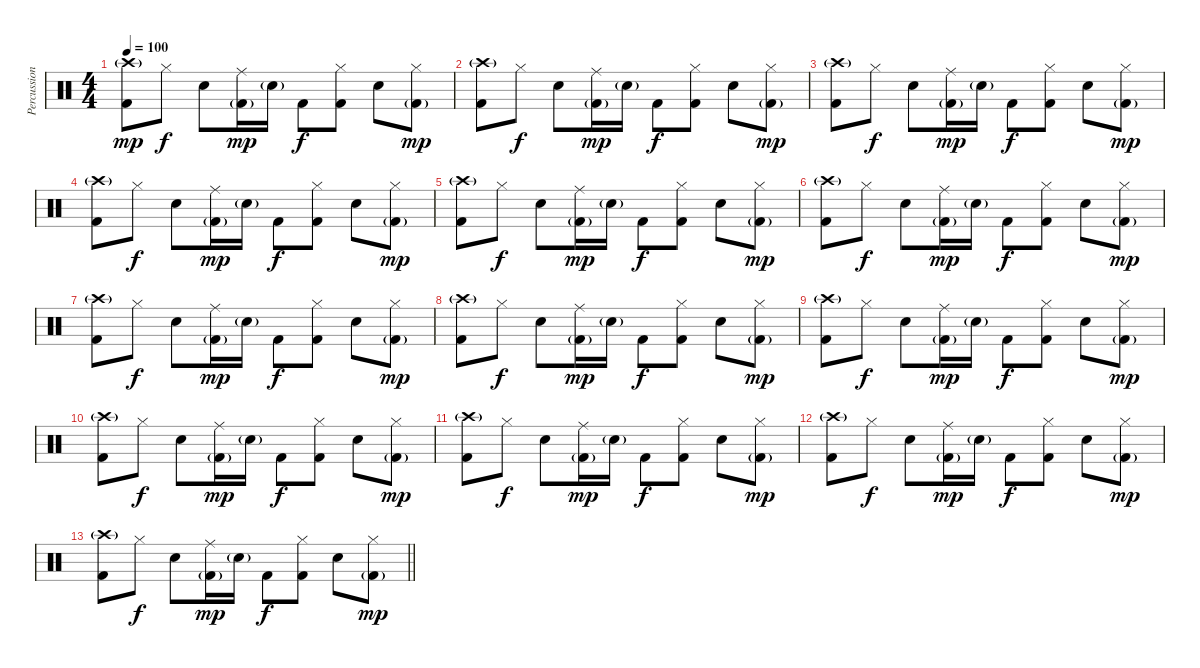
\track ("Percussion" "Percussion") {instrument percussion}
\staff {score}
\articulation defaults
\ts (4 4)
\tempo 100
\clef neutral
\ks c
("Crash high (hit)"{g} "Kick (hit) 2").8{dy mp} "Hi-Hat (closed)".8{dy f} "Snare (hit) 2".8 ("Ride (middle)" "Kick (hit) 2"{g}).16{dy mp} "Snare (hit) 2"{g}.16 "Kick (hit) 2".8{dy f} ("Hi-Hat (closed)" "Kick (hit) 2").8 "Snare (hit) 2".8 ("Hi-Hat (closed)" "Kick (hit) 2"{g}).8{dy mp} |
("Crash high (hit)"{g} "Kick (hit) 2").8 "Hi-Hat (closed)".8{dy f} "Snare (hit) 2".8 ("Ride (middle)" "Kick (hit) 2"{g}).16{dy mp} "Snare (hit) 2"{g}.16 "Kick (hit) 2".8{dy f} ("Hi-Hat (closed)" "Kick (hit) 2").8 "Snare (hit) 2".8 ("Hi-Hat (closed)" "Kick (hit) 2"{g}).8{dy mp} |
("Crash high (hit)"{g} "Kick (hit) 2").8 "Hi-Hat (closed)".8{dy f} "Snare (hit) 2".8 ("Ride (middle)" "Kick (hit) 2"{g}).16{dy mp} "Snare (hit) 2"{g}.16 "Kick (hit) 2".8{dy f} ("Hi-Hat (closed)" "Kick (hit) 2").8 "Snare (hit) 2".8 ("Hi-Hat (closed)" "Kick (hit) 2"{g}).8{dy mp} |
("Crash high (hit)"{g} "Kick (hit) 2").8 "Hi-Hat (closed)".8{dy f} "Snare (hit) 2".8 ("Ride (middle)" "Kick (hit) 2"{g}).16{dy mp} "Snare (hit) 2"{g}.16 "Kick (hit) 2".8{dy f} ("Hi-Hat (closed)" "Kick (hit) 2").8 "Snare (hit) 2".8 ("Hi-Hat (closed)" "Kick (hit) 2"{g}).8{dy mp} |
("Crash high (hit)"{g} "Kick (hit) 2").8 "Hi-Hat (closed)".8{dy f} "Snare (hit) 2".8 ("Ride (middle)" "Kick (hit) 2"{g}).16{dy mp} "Snare (hit) 2"{g}.16 "Kick (hit) 2".8{dy f} ("Hi-Hat (closed)" "Kick (hit) 2").8 "Snare (hit) 2".8 ("Hi-Hat (closed)" "Kick (hit) 2"{g}).8{dy mp} |
("Crash high (hit)"{g} "Kick (hit) 2").8 "Hi-Hat (closed)".8{dy f} "Snare (hit) 2".8 ("Ride (middle)" "Kick (hit) 2"{g}).16{dy mp} "Snare (hit) 2"{g}.16 "Kick (hit) 2".8{dy f} ("Hi-Hat (closed)" "Kick (hit) 2").8 "Snare (hit) 2".8 ("Hi-Hat (closed)" "Kick (hit) 2"{g}).8{dy mp} |
("Crash high (hit)"{g} "Kick (hit) 2").8 "Hi-Hat (closed)".8{dy f} "Snare (hit) 2".8 ("Ride (middle)" "Kick (hit) 2"{g}).16{dy mp} "Snare (hit) 2"{g}.16 "Kick (hit) 2".8{dy f} ("Hi-Hat (closed)" "Kick (hit) 2").8 "Snare (hit) 2".8 ("Hi-Hat (closed)" "Kick (hit) 2"{g}).8{dy mp} |
("Crash high (hit)"{g} "Kick (hit) 2").8 "Hi-Hat (closed)".8{dy f} "Snare (hit) 2".8 ("Ride (middle)" "Kick (hit) 2"{g}).16{dy mp} "Snare (hit) 2"{g}.16 "Kick (hit) 2".8{dy f} ("Hi-Hat (closed)" "Kick (hit) 2").8 "Snare (hit) 2".8 ("Hi-Hat (closed)" "Kick (hit) 2"{g}).8{dy mp} |
("Crash high (hit)"{g} "Kick (hit) 2").8 "Hi-Hat (closed)".8{dy f} "Snare (hit) 2".8 ("Ride (middle)" "Kick (hit) 2"{g}).16{dy mp} "Snare (hit) 2"{g}.16 "Kick (hit) 2".8{dy f} ("Hi-Hat (closed)" "Kick (hit) 2").8 "Snare (hit) 2".8 ("Hi-Hat (closed)" "Kick (hit) 2"{g}).8{dy mp} |
("Crash high (hit)"{g} "Kick (hit) 2").8 "Hi-Hat (closed)".8{dy f} "Snare (hit) 2".8 ("Ride (middle)" "Kick (hit) 2"{g}).16{dy mp} "Snare (hit) 2"{g}.16 "Kick (hit) 2".8{dy f} ("Hi-Hat (closed)" "Kick (hit) 2").8 "Snare (hit) 2".8 ("Hi-Hat (closed)" "Kick (hit) 2"{g}).8{dy mp} |
("Crash high (hit)"{g} "Kick (hit) 2").8 "Hi-Hat (closed)".8{dy f} "Snare (hit) 2".8 ("Ride (middle)" "Kick (hit) 2"{g}).16{dy mp} "Snare (hit) 2"{g}.16 "Kick (hit) 2".8{dy f} ("Hi-Hat (closed)" "Kick (hit) 2").8 "Snare (hit) 2".8 ("Hi-Hat (closed)" "Kick (hit) 2"{g}).8{dy mp} |
("Crash high (hit)"{g} "Kick (hit) 2").8 "Hi-Hat (closed)".8{dy f} "Snare (hit) 2".8 ("Ride (middle)" "Kick (hit) 2"{g}).16{dy mp} "Snare (hit) 2"{g}.16 "Kick (hit) 2".8{dy f} ("Hi-Hat (closed)" "Kick (hit) 2").8 "Snare (hit) 2".8 ("Hi-Hat (closed)" "Kick (hit) 2"{g}).8{dy mp} |
\barLineRight lightlight
("Crash high (hit)"{g} "Kick (hit) 2").8 "Hi-Hat (closed)".8{dy f} "Snare (hit) 2".8 ("Ride (middle)" "Kick (hit) 2"{g}).16{dy mp} "Snare (hit) 2"{g}.16 "Kick (hit) 2".8{dy f} ("Hi-Hat (closed)" "Kick (hit) 2").8 "Snare (hit) 2".8 ("Hi-Hat (closed)" "Kick (hit) 2"{g}).8{dy mp}
